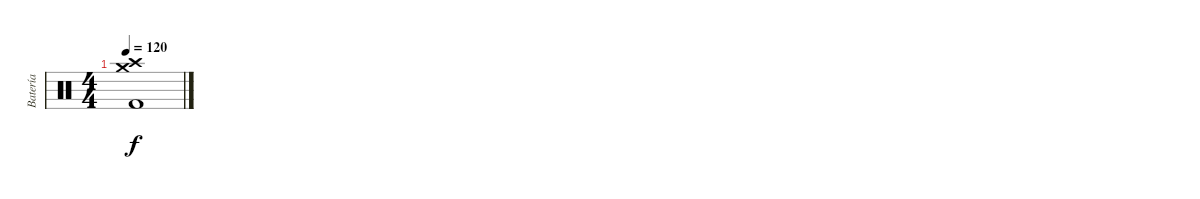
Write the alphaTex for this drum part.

\track ("Batería" "Batería") {instrument percussion}
\staff {score}
\articulation defaults
\ts (4 4)
\tempo 120
\clef neutral
\ks c
("Crash high (hit)" "Crash medium (hit)" "Kick (hit) 2").1{dy f}
